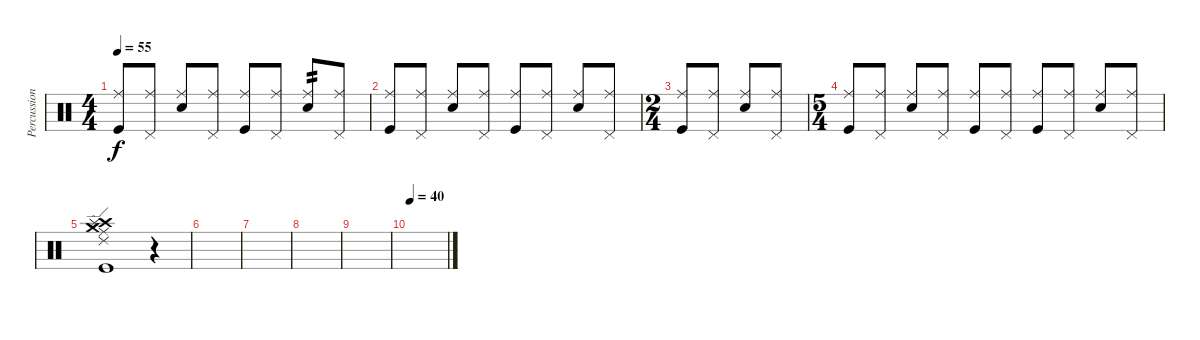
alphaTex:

\track ("Percussion" "Percussion") {instrument percussion}
\staff {score}
\articulation defaults
\ts (4 4)
\tempo 55
\clef neutral
\ks c
("Ride (middle)" "Kick (hit)").8{dy f} ("Ride (middle)" "Pedal Hi-Hat (hit)").8 ("Ride (middle)" "Electric Snare (hit)").8 ("Ride (middle)" "Pedal Hi-Hat (hit)").8 ("Ride (middle)" "Kick (hit)").8 ("Ride (middle)" "Pedal Hi-Hat (hit)").8 ("Ride (middle)" "Electric Snare (hit)").8{tp 2} ("Ride (middle)" "Pedal Hi-Hat (hit)").8 |
("Ride (middle)" "Kick (hit)").8{volume 9} ("Ride (middle)" "Pedal Hi-Hat (hit)").8 ("Ride (middle)" "Electric Snare (hit)").8 ("Ride (middle)" "Pedal Hi-Hat (hit)").8 ("Ride (middle)" "Kick (hit)").8 ("Ride (middle)" "Pedal Hi-Hat (hit)").8 ("Ride (middle)" "Electric Snare (hit)").8 ("Ride (middle)" "Pedal Hi-Hat (hit)").8 |
\ts (2 4)
("Ride (middle)" "Kick (hit)").8 ("Ride (middle)" "Pedal Hi-Hat (hit)").8 ("Ride (middle)" "Electric Snare (hit)").8 ("Ride (middle)" "Pedal Hi-Hat (hit)").8 |
\ts (5 4)
("Ride (middle)" "Kick (hit)").8{volume 9} ("Ride (middle)" "Pedal Hi-Hat (hit)").8 ("Ride (middle)" "Electric Snare (hit)").8 ("Ride (middle)" "Pedal Hi-Hat (hit)").8 ("Ride (middle)" "Kick (hit)").8 ("Ride (middle)" "Pedal Hi-Hat (hit)").8 ("Ride (middle)" "Kick (hit)").8 ("Ride (middle)" "Pedal Hi-Hat (hit)").8 ("Ride (middle)" "Electric Snare (hit)").8 ("Ride (middle)" "Pedal Hi-Hat (hit)").8 |
("Crash high (hit)" "Ride (edge) 2" "Splash (hit)" "Crash medium (hit)" "Ride (middle)" "Kick (hit)").1 r.4 |
|
|
|
|
\tempo 40
